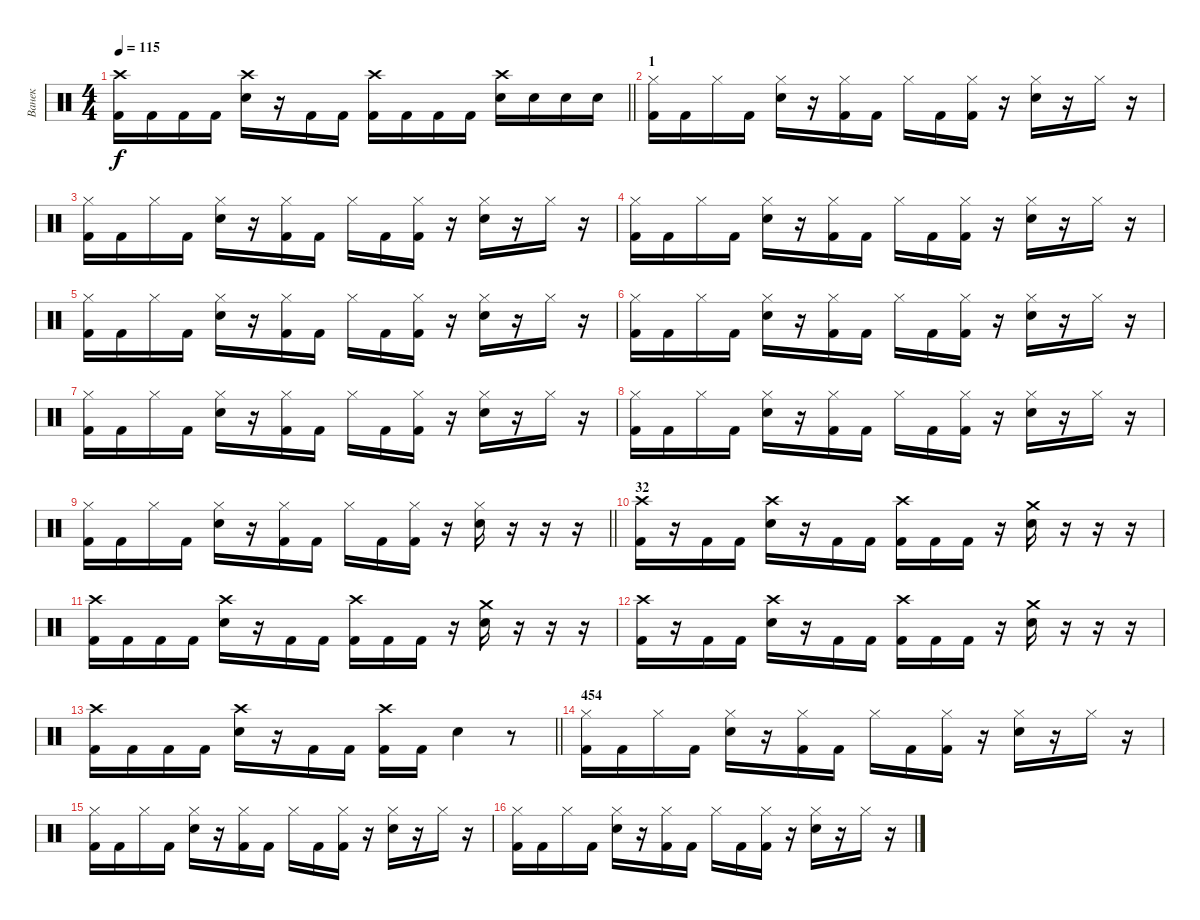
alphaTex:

\track ("Ванек" "Ванек") {instrument percussion}
\staff {score}
\articulation defaults
\ts (4 4)
\tempo 115
\clef neutral
\barLineRight lightlight
\ks c
("Crash high (hit)" "Kick (hit) 2").16{dy f} "Kick (hit) 2".16 "Kick (hit) 2".16 "Kick (hit) 2".16 ("Crash high (hit)" "Snare (hit) 2").16 r.16 "Kick (hit) 2".16 "Kick (hit) 2".16 ("Crash high (hit)" "Kick (hit) 2").16 "Kick (hit) 2".16 "Kick (hit) 2".16 "Kick (hit) 2".16 ("Crash high (hit)" "Snare (hit) 2").16 "Snare (hit) 2".16 "Snare (hit) 2".16 "Snare (hit) 2".16 |
\section ("" "1")
("Hi-Hat (closed)" "Kick (hit) 2").16 "Kick (hit) 2".16 "Hi-Hat (closed)".16 "Kick (hit) 2".16 ("Hi-Hat (closed)" "Snare (hit) 2").16 r.16 ("Hi-Hat (closed)" "Kick (hit) 2").16 "Kick (hit) 2".16 "Hi-Hat (closed)".16 "Kick (hit) 2".16 ("Hi-Hat (closed)" "Kick (hit) 2").16 r.16 ("Hi-Hat (closed)" "Snare (hit) 2").16 r.16 "Hi-Hat (closed)".16 r.16 |
("Hi-Hat (closed)" "Kick (hit) 2").16 "Kick (hit) 2".16 "Hi-Hat (closed)".16 "Kick (hit) 2".16 ("Hi-Hat (closed)" "Snare (hit) 2").16 r.16 ("Hi-Hat (closed)" "Kick (hit) 2").16 "Kick (hit) 2".16 "Hi-Hat (closed)".16 "Kick (hit) 2".16 ("Hi-Hat (closed)" "Kick (hit) 2").16 r.16 ("Hi-Hat (closed)" "Snare (hit) 2").16 r.16 "Hi-Hat (closed)".16 r.16 |
("Hi-Hat (closed)" "Kick (hit) 2").16 "Kick (hit) 2".16 "Hi-Hat (closed)".16 "Kick (hit) 2".16 ("Hi-Hat (closed)" "Snare (hit) 2").16 r.16 ("Hi-Hat (closed)" "Kick (hit) 2").16 "Kick (hit) 2".16 "Hi-Hat (closed)".16 "Kick (hit) 2".16 ("Hi-Hat (closed)" "Kick (hit) 2").16 r.16 ("Hi-Hat (closed)" "Snare (hit) 2").16 r.16 "Hi-Hat (closed)".16 r.16 |
("Hi-Hat (closed)" "Kick (hit) 2").16 "Kick (hit) 2".16 "Hi-Hat (closed)".16 "Kick (hit) 2".16 ("Hi-Hat (closed)" "Snare (hit) 2").16 r.16 ("Hi-Hat (closed)" "Kick (hit) 2").16 "Kick (hit) 2".16 "Hi-Hat (closed)".16 "Kick (hit) 2".16 ("Hi-Hat (closed)" "Kick (hit) 2").16 r.16 ("Hi-Hat (closed)" "Snare (hit) 2").16 r.16 "Hi-Hat (closed)".16 r.16 |
("Hi-Hat (closed)" "Kick (hit) 2").16 "Kick (hit) 2".16 "Hi-Hat (closed)".16 "Kick (hit) 2".16 ("Hi-Hat (closed)" "Snare (hit) 2").16 r.16 ("Hi-Hat (closed)" "Kick (hit) 2").16 "Kick (hit) 2".16 "Hi-Hat (closed)".16 "Kick (hit) 2".16 ("Hi-Hat (closed)" "Kick (hit) 2").16 r.16 ("Hi-Hat (closed)" "Snare (hit) 2").16 r.16 "Hi-Hat (closed)".16 r.16 |
("Hi-Hat (closed)" "Kick (hit) 2").16 "Kick (hit) 2".16 "Hi-Hat (closed)".16 "Kick (hit) 2".16 ("Hi-Hat (closed)" "Snare (hit) 2").16 r.16 ("Hi-Hat (closed)" "Kick (hit) 2").16 "Kick (hit) 2".16 "Hi-Hat (closed)".16 "Kick (hit) 2".16 ("Hi-Hat (closed)" "Kick (hit) 2").16 r.16 ("Hi-Hat (closed)" "Snare (hit) 2").16 r.16 "Hi-Hat (closed)".16 r.16 |
("Hi-Hat (closed)" "Kick (hit) 2").16 "Kick (hit) 2".16 "Hi-Hat (closed)".16 "Kick (hit) 2".16 ("Hi-Hat (closed)" "Snare (hit) 2").16 r.16 ("Hi-Hat (closed)" "Kick (hit) 2").16 "Kick (hit) 2".16 "Hi-Hat (closed)".16 "Kick (hit) 2".16 ("Hi-Hat (closed)" "Kick (hit) 2").16 r.16 ("Hi-Hat (closed)" "Snare (hit) 2").16 r.16 "Hi-Hat (closed)".16 r.16 |
\barLineRight lightlight
("Hi-Hat (closed)" "Kick (hit) 2").16 "Kick (hit) 2".16 "Hi-Hat (closed)".16 "Kick (hit) 2".16 ("Hi-Hat (closed)" "Snare (hit) 2").16 r.16 ("Hi-Hat (closed)" "Kick (hit) 2").16 "Kick (hit) 2".16 "Hi-Hat (closed)".16 "Kick (hit) 2".16 ("Hi-Hat (closed)" "Kick (hit) 2").16 r.16 ("Hi-Hat (closed)" "Snare (hit) 2").16 r.16 r.16 r.16 |
\section ("" "32")
("Crash high (hit)" "Kick (hit) 2").16 r.16 "Kick (hit) 2".16 "Kick (hit) 2".16 ("Crash high (hit)" "Snare (hit) 2").16 r.16 "Kick (hit) 2".16 "Kick (hit) 2".16 ("Crash high (hit)" "Kick (hit) 2").16 "Kick (hit) 2".16 "Kick (hit) 2".16 r.16 ("Crash medium (hit)" "Snare (hit) 2").16 r.16 r.16 r.16 |
("Crash high (hit)" "Kick (hit) 2").16 "Kick (hit) 2".16 "Kick (hit) 2".16 "Kick (hit) 2".16 ("Crash high (hit)" "Snare (hit) 2").16 r.16 "Kick (hit) 2".16 "Kick (hit) 2".16 ("Crash high (hit)" "Kick (hit) 2").16 "Kick (hit) 2".16 "Kick (hit) 2".16 r.16 ("Crash medium (hit)" "Snare (hit) 2").16 r.16 r.16 r.16 |
("Crash high (hit)" "Kick (hit) 2").16 r.16 "Kick (hit) 2".16 "Kick (hit) 2".16 ("Crash high (hit)" "Snare (hit) 2").16 r.16 "Kick (hit) 2".16 "Kick (hit) 2".16 ("Crash high (hit)" "Kick (hit) 2").16 "Kick (hit) 2".16 "Kick (hit) 2".16 r.16 ("Crash medium (hit)" "Snare (hit) 2").16 r.16 r.16 r.16 |
\barLineRight lightlight
("Crash high (hit)" "Kick (hit) 2").16 "Kick (hit) 2".16 "Kick (hit) 2".16 "Kick (hit) 2".16 ("Crash high (hit)" "Snare (hit) 2").16 r.16 "Kick (hit) 2".16 "Kick (hit) 2".16 ("Crash high (hit)" "Kick (hit) 2").16 "Kick (hit) 2".16 "Snare (hit) 2".4 r.8 |
\section ("" "454")
("Hi-Hat (closed)" "Kick (hit) 2").16 "Kick (hit) 2".16 "Hi-Hat (closed)".16 "Kick (hit) 2".16 ("Hi-Hat (closed)" "Snare (hit) 2").16 r.16 ("Hi-Hat (closed)" "Kick (hit) 2").16 "Kick (hit) 2".16 "Hi-Hat (closed)".16 "Kick (hit) 2".16 ("Hi-Hat (closed)" "Kick (hit) 2").16 r.16 ("Hi-Hat (closed)" "Snare (hit) 2").16 r.16 "Hi-Hat (closed)".16 r.16 |
("Hi-Hat (closed)" "Kick (hit) 2").16 "Kick (hit) 2".16 "Hi-Hat (closed)".16 "Kick (hit) 2".16 ("Hi-Hat (closed)" "Snare (hit) 2").16 r.16 ("Hi-Hat (closed)" "Kick (hit) 2").16 "Kick (hit) 2".16 "Hi-Hat (closed)".16 "Kick (hit) 2".16 ("Hi-Hat (closed)" "Kick (hit) 2").16 r.16 ("Hi-Hat (closed)" "Snare (hit) 2").16 r.16 "Hi-Hat (closed)".16 r.16 |
("Hi-Hat (closed)" "Kick (hit) 2").16 "Kick (hit) 2".16 "Hi-Hat (closed)".16 "Kick (hit) 2".16 ("Hi-Hat (closed)" "Snare (hit) 2").16 r.16 ("Hi-Hat (closed)" "Kick (hit) 2").16 "Kick (hit) 2".16 "Hi-Hat (closed)".16 "Kick (hit) 2".16 ("Hi-Hat (closed)" "Kick (hit) 2").16 r.16 ("Hi-Hat (closed)" "Snare (hit) 2").16 r.16 "Hi-Hat (closed)".16 r.16
